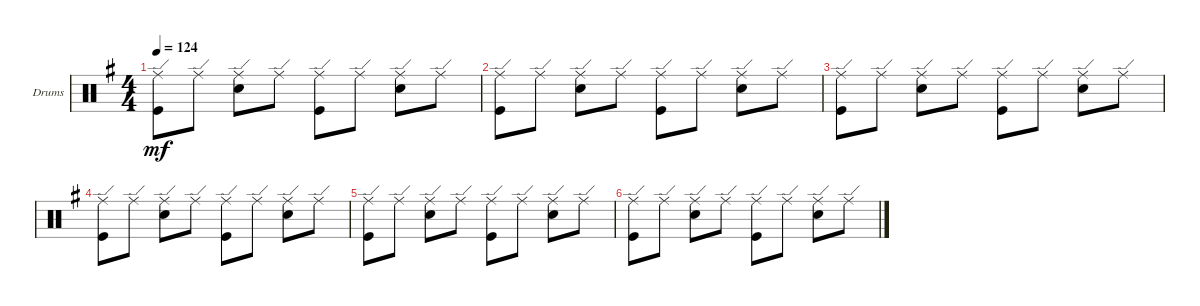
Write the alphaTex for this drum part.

\defaultSystemsLayout 4
\bracketExtendMode groupsimilarinstruments
\firstSystemTrackNameOrientation horizontal
\otherSystemsTrackNameOrientation horizontal
\track ("PETER CRISS" "Drums") {instrument percussion}
\staff {score}
\articulation defaults
\ts (4 4)
\tempo 124
\clef neutral
\scale
0.333333
\ks g
("Kick (hit)" "Ride (edge)").8{dy mf} "Ride (edge)".8 ("Ride (edge)" "Snare (hit) 2").8 "Ride (edge)".8 ("Kick (hit)" "Ride (edge)").8 "Ride (edge)".8 ("Ride (edge)" "Snare (hit) 2").8 "Ride (edge)".8 |
\scale
0.333333 ("Kick (hit)" "Ride (edge)").8 "Ride (edge)".8 ("Ride (edge)" "Snare (hit) 2").8 "Ride (edge)".8 ("Kick (hit)" "Ride (edge)").8 "Ride (edge)".8 ("Ride (edge)" "Snare (hit) 2").8 "Ride (edge)".8 |
\scale
0.333333 ("Kick (hit)" "Ride (edge)").8 "Ride (edge)".8 ("Ride (edge)" "Snare (hit) 2").8 "Ride (edge)".8 ("Kick (hit)" "Ride (edge)").8 "Ride (edge)".8 ("Ride (edge)" "Snare (hit) 2").8 "Ride (edge)".8 |
\scale
0.333333 ("Kick (hit)" "Ride (edge)").8 "Ride (edge)".8 ("Ride (edge)" "Snare (hit) 2").8 "Ride (edge)".8 ("Kick (hit)" "Ride (edge)").8 "Ride (edge)".8 ("Ride (edge)" "Snare (hit) 2").8 "Ride (edge)".8 |
\scale
0.333333 ("Kick (hit)" "Ride (edge)").8 "Ride (edge)".8 ("Ride (edge)" "Snare (hit) 2").8 "Ride (edge)".8 ("Kick (hit)" "Ride (edge)").8 "Ride (edge)".8 ("Ride (edge)" "Snare (hit) 2").8 "Ride (edge)".8 |
("Kick (hit)" "Ride (edge)").8 "Ride (edge)".8 ("Ride (edge)" "Snare (hit) 2").8 "Ride (edge)".8 ("Kick (hit)" "Ride (edge)").8 "Ride (edge)".8 ("Ride (edge)" "Snare (hit) 2").8 "Ride (edge)".8
